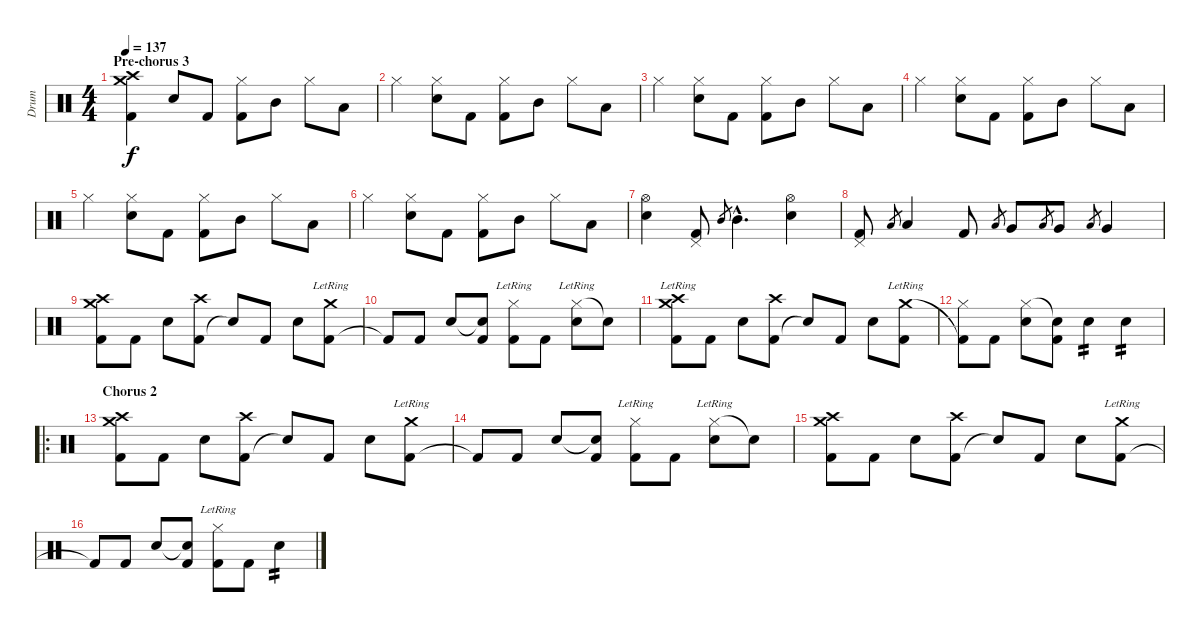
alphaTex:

\track ("Drum" "Drum") {instrument percussion}
\staff {score}
\articulation defaults
\ts (4 4)
\section ("" "Pre-chorus 3")
\tempo 137
\clef neutral
\ks c
("Kick (hit) 2" "Crash high (hit)" "Crash medium (hit)").4{dy f} "Electric Snare (hit)".8 "Kick (hit) 2".8 ("Hi-Hat (closed)" "Kick (hit) 2").8 "Mid Tom (hit)".8 "Hi-Hat (closed)".8 "Low Tom (hit)".8 |
"Hi-Hat (closed)".4 ("Hi-Hat (closed)" "Electric Snare (hit)").8 "Kick (hit) 2".8 ("Hi-Hat (closed)" "Kick (hit) 2").8 "Mid Tom (hit)".8 "Hi-Hat (closed)".8 "Low Tom (hit)".8 |
"Hi-Hat (closed)".4 ("Hi-Hat (closed)" "Electric Snare (hit)").8 "Kick (hit) 2".8 ("Hi-Hat (closed)" "Kick (hit) 2").8 "Mid Tom (hit)".8 "Hi-Hat (closed)".8 "Low Tom (hit)".8 |
"Hi-Hat (closed)".4 ("Hi-Hat (closed)" "Electric Snare (hit)").8 "Kick (hit) 2".8 ("Hi-Hat (closed)" "Kick (hit) 2").8 "Mid Tom (hit)".8 "Hi-Hat (closed)".8 "Low Tom (hit)".8 |
"Hi-Hat (closed)".4 ("Hi-Hat (closed)" "Electric Snare (hit)").8 "Kick (hit) 2".8 ("Hi-Hat (closed)" "Kick (hit) 2").8 "Mid Tom (hit)".8 "Hi-Hat (closed)".8 "Low Tom (hit)".8 |
"Hi-Hat (closed)".4 ("Hi-Hat (closed)" "Electric Snare (hit)").8 "Kick (hit) 2".8 ("Hi-Hat (closed)" "Kick (hit) 2").8 "Mid Tom (hit)".8 "Hi-Hat (closed)".8 "Low Tom (hit)".8 |
("Hi-Hat (open)" "Electric Snare (hit)").4 ("Pedal Hi-Hat (hit)" "Kick (hit) 2").8 "Mid Tom (hit)".8{gr} "Mid Tom (hit)"{hac}.4{d} ("Hi-Hat (open)" "Electric Snare (hit)").4 |
("Pedal Hi-Hat (hit)" "Kick (hit) 2").8 "Low Tom (hit)".8{gr} "Low Tom (hit)".4 "Kick (hit) 2".8 "Low Floor Tom (hit)".8{gr} "Very Low Tom (hit)".8 "Low Floor Tom (hit)".8{gr} "Very Low Tom (hit)".8 "Low Floor Tom (hit)".8{gr} "Very Low Tom (hit)".4 |
("Kick (hit) 2" "Crash high (hit)" "Crash medium (hit)").8 "Kick (hit) 2".8 "Electric Snare (hit)".8 ("Kick (hit) 2" "Crash high (hit)").8 "Snare (hit)"{t}.8 "Kick (hit) 2".8 "Electric Snare (hit)".8 ("Kick (hit) 2" "Crash medium (hit)"{lr}).8 |
"Kick (hit) 2"{t}.8 "Kick (hit) 2".8 "Electric Snare (hit)".8 ("Snare (hit)"{t} "Kick (hit) 2").8 ("Hi-Hat (closed)"{lr} "Kick (hit) 2").8 "Kick (hit) 2".8 ("Hi-Hat (closed)"{lr} "Electric Snare (hit)"{lr}).8 "Snare (hit)"{t}.8 |
("Kick (hit) 2" "Crash high (hit)"{lr} "Crash medium (hit)"{lr}).8 "Kick (hit) 2".8 "Electric Snare (hit)".8 ("Kick (hit) 2" "Crash high (hit)").8 "Snare (hit)"{t}.8 "Kick (hit) 2".8 "Electric Snare (hit)".8 ("Kick (hit) 2" "Crash medium (hit)"{lr}).8 |
("Hi-Hat (closed)" "Kick (hit) 2"{t}).8 "Kick (hit) 2".8 ("Hi-Hat (closed)" "Electric Snare (hit)").8 ("Snare (hit)"{t} "Kick (hit) 2").8 "Electric Snare (hit)".4{tp 2} "Electric Snare (hit)".4{tp 2} |
\ro
\section ("" "Chorus 2")
("Kick (hit) 2" "Crash high (hit)" "Crash medium (hit)").8 "Kick (hit) 2".8 "Electric Snare (hit)".8 ("Kick (hit) 2" "Crash high (hit)").8 "Snare (hit)"{t}.8 "Kick (hit) 2".8 "Electric Snare (hit)".8 ("Kick (hit) 2" "Crash medium (hit)"{lr}).8 |
"Kick (hit) 2"{t}.8 "Kick (hit) 2".8 "Electric Snare (hit)".8 ("Snare (hit)"{t} "Kick (hit) 2").8 ("Hi-Hat (closed)"{lr} "Kick (hit) 2").8 "Kick (hit) 2".8 ("Hi-Hat (closed)"{lr} "Electric Snare (hit)"{lr}).8 "Snare (hit)"{t}.8 |
("Kick (hit) 2" "Crash high (hit)" "Crash medium (hit)").8 "Kick (hit) 2".8 "Electric Snare (hit)".8 ("Kick (hit) 2" "Crash high (hit)").8 "Snare (hit)"{t}.8 "Kick (hit) 2".8 "Electric Snare (hit)".8 ("Kick (hit) 2" "Crash medium (hit)"{lr}).8 |
"Kick (hit) 2"{t}.8 "Kick (hit) 2".8 "Electric Snare (hit)".8 ("Snare (hit)"{t} "Kick (hit) 2").8 ("Hi-Hat (closed)"{lr} "Kick (hit) 2").8 "Kick (hit) 2".8 "Electric Snare (hit)".4{tp 2}
